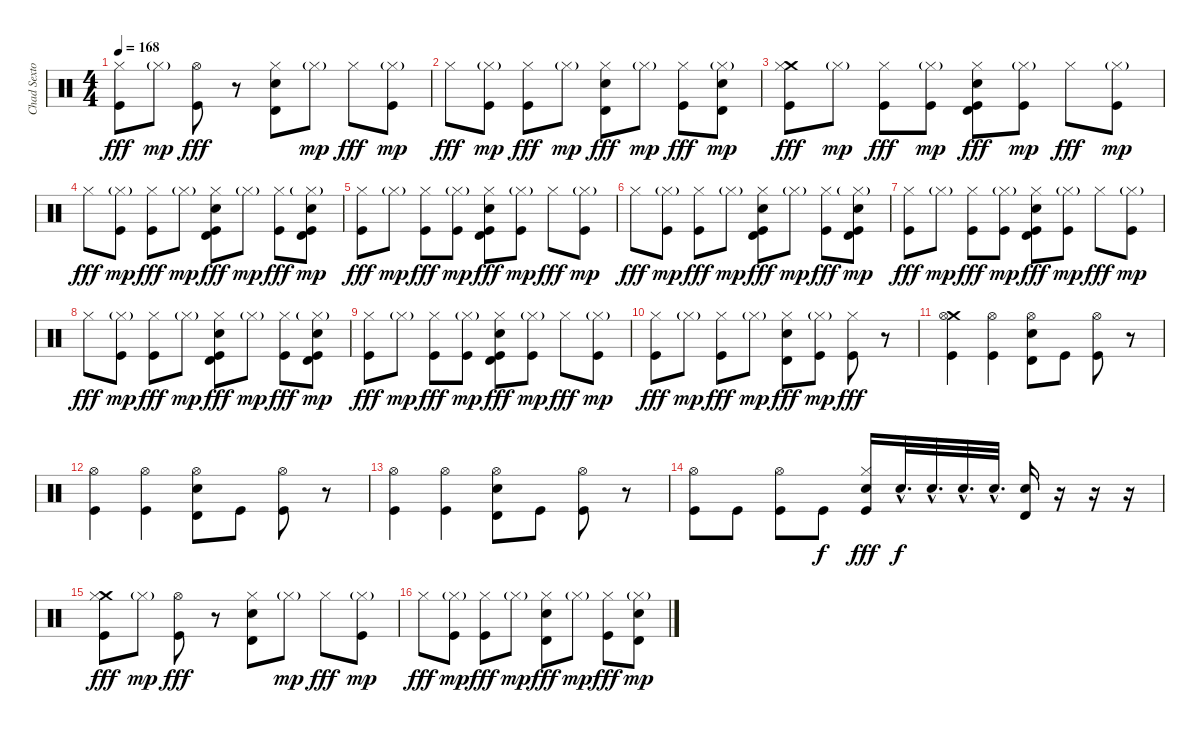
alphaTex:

\track ("Chad Sexton" "Chad Sexto") {instrument percussion}
\staff {score}
\articulation defaults
\ts (4 4)
\tempo 168
\clef neutral
\ks c
("Kick (hit)" "Hi-Hat (closed)").8{dy fff} "Hi-Hat (closed)"{g}.8{dy mp} ("Kick (hit)" "Hi-Hat (open)").8{dy fff} r.8 ("Electric Snare (hit)" "Timbale high (hit)" "Hi-Hat (closed)").8 "Hi-Hat (closed)"{g}.8{dy mp} "Hi-Hat (closed)".8{dy fff} ("Kick (hit)" "Hi-Hat (closed)"{g}).8{dy mp} |
"Hi-Hat (closed)".8{dy fff} ("Kick (hit)" "Hi-Hat (closed)"{g}).8{dy mp} ("Kick (hit)" "Hi-Hat (closed)").8{dy fff} "Hi-Hat (closed)"{g}.8{dy mp} ("Electric Snare (hit)" "Timbale high (hit)" "Hi-Hat (closed)").8{dy fff} "Hi-Hat (closed)"{g}.8{dy mp} ("Kick (hit)" "Hi-Hat (closed)").8{dy fff} ("Electric Snare (hit)" "Timbale high (hit)" "Hi-Hat (closed)"{g}).8{dy mp} |
("Crash medium (hit)" "Kick (hit)" "Hi-Hat (closed)").8{dy fff} "Hi-Hat (closed)"{g}.8{dy mp} ("Kick (hit)" "Hi-Hat (closed)").8{dy fff} ("Kick (hit)" "Hi-Hat (closed)"{g}).8{dy mp} ("Timbale high (hit)" "Electric Snare (hit)" "Kick (hit)" "Hi-Hat (closed)").8{dy fff} ("Kick (hit)" "Hi-Hat (closed)"{g}).8{dy mp} "Hi-Hat (closed)".8{dy fff} ("Kick (hit)" "Hi-Hat (closed)"{g}).8{dy mp} |
"Hi-Hat (closed)".8{dy fff} ("Kick (hit)" "Hi-Hat (closed)"{g}).8{dy mp} ("Kick (hit)" "Hi-Hat (closed)").8{dy fff} "Hi-Hat (closed)"{g}.8{dy mp} ("Timbale high (hit)" "Electric Snare (hit)" "Kick (hit)" "Hi-Hat (closed)").8{dy fff} "Hi-Hat (closed)"{g}.8{dy mp} ("Kick (hit)" "Hi-Hat (closed)").8{dy fff} ("Timbale high (hit)" "Electric Snare (hit)" "Kick (hit)" "Hi-Hat (closed)"{g}).8{dy mp} |
("Kick (hit)" "Hi-Hat (closed)").8{dy fff} "Hi-Hat (closed)"{g}.8{dy mp} ("Kick (hit)" "Hi-Hat (closed)").8{dy fff} ("Kick (hit)" "Hi-Hat (closed)"{g}).8{dy mp} ("Timbale high (hit)" "Electric Snare (hit)" "Kick (hit)" "Hi-Hat (closed)").8{dy fff} ("Kick (hit)" "Hi-Hat (closed)"{g}).8{dy mp} "Hi-Hat (closed)".8{dy fff} ("Kick (hit)" "Hi-Hat (closed)"{g}).8{dy mp} |
"Hi-Hat (closed)".8{dy fff} ("Kick (hit)" "Hi-Hat (closed)"{g}).8{dy mp} ("Kick (hit)" "Hi-Hat (closed)").8{dy fff} "Hi-Hat (closed)"{g}.8{dy mp} ("Timbale high (hit)" "Electric Snare (hit)" "Kick (hit)" "Hi-Hat (closed)").8{dy fff} "Hi-Hat (closed)"{g}.8{dy mp} ("Kick (hit)" "Hi-Hat (closed)").8{dy fff} ("Timbale high (hit)" "Electric Snare (hit)" "Kick (hit)" "Hi-Hat (closed)"{g}).8{dy mp} |
("Kick (hit)" "Hi-Hat (closed)").8{dy fff} "Hi-Hat (closed)"{g}.8{dy mp} ("Kick (hit)" "Hi-Hat (closed)").8{dy fff} ("Kick (hit)" "Hi-Hat (closed)"{g}).8{dy mp} ("Timbale high (hit)" "Electric Snare (hit)" "Kick (hit)" "Hi-Hat (closed)").8{dy fff} ("Kick (hit)" "Hi-Hat (closed)"{g}).8{dy mp} "Hi-Hat (closed)".8{dy fff} ("Kick (hit)" "Hi-Hat (closed)"{g}).8{dy mp} |
"Hi-Hat (closed)".8{dy fff} ("Kick (hit)" "Hi-Hat (closed)"{g}).8{dy mp} ("Kick (hit)" "Hi-Hat (closed)").8{dy fff} "Hi-Hat (closed)"{g}.8{dy mp} ("Timbale high (hit)" "Electric Snare (hit)" "Kick (hit)" "Hi-Hat (closed)").8{dy fff} "Hi-Hat (closed)"{g}.8{dy mp} ("Kick (hit)" "Hi-Hat (closed)").8{dy fff} ("Timbale high (hit)" "Electric Snare (hit)" "Kick (hit)" "Hi-Hat (closed)"{g}).8{dy mp} |
("Kick (hit)" "Hi-Hat (closed)").8{dy fff} "Hi-Hat (closed)"{g}.8{dy mp} ("Kick (hit)" "Hi-Hat (closed)").8{dy fff} ("Kick (hit)" "Hi-Hat (closed)"{g}).8{dy mp} ("Timbale high (hit)" "Electric Snare (hit)" "Kick (hit)" "Hi-Hat (closed)").8{dy fff} ("Kick (hit)" "Hi-Hat (closed)"{g}).8{dy mp} "Hi-Hat (closed)".8{dy fff} ("Kick (hit)" "Hi-Hat (closed)"{g}).8{dy mp} |
("Kick (hit)" "Hi-Hat (closed)").8{dy fff} "Hi-Hat (closed)"{g}.8{dy mp} ("Kick (hit)" "Hi-Hat (closed)").8{dy fff} "Hi-Hat (closed)"{g}.8{dy mp} ("Timbale high (hit)" "Electric Snare (hit)" "Hi-Hat (closed)").8{dy fff} ("Kick (hit)" "Hi-Hat (closed)"{g}).8{dy mp} ("Kick (hit)" "Hi-Hat (closed)").8{dy fff} r.8 |
("Crash medium (hit)" "Hi-Hat (open)" "Kick (hit)").4 ("Hi-Hat (open)" "Kick (hit)").4 ("Hi-Hat (open)" "Electric Snare (hit)" "Timbale high (hit)").8 "Kick (hit)".8 ("Hi-Hat (open)" "Kick (hit)").8 r.8 |
("Hi-Hat (open)" "Kick (hit)").4 ("Hi-Hat (open)" "Kick (hit)").4 ("Hi-Hat (open)" "Electric Snare (hit)" "Timbale high (hit)").8 "Kick (hit)".8 ("Hi-Hat (open)" "Kick (hit)").8 r.8 |
("Hi-Hat (open)" "Kick (hit)").4 ("Hi-Hat (open)" "Kick (hit)").4 ("Hi-Hat (open)" "Electric Snare (hit)" "Timbale high (hit)").8 "Kick (hit)".8 ("Hi-Hat (open)" "Kick (hit)").8 r.8 |
("Hi-Hat (open)" "Kick (hit)").8 "Kick (hit)".8 ("Hi-Hat (open)" "Kick (hit)").8 "Kick (hit)".8{dy f} ("Hi-Hat (closed)" "Electric Snare (hit)" "Kick (hit)").16{dy fff} "Electric Snare (hit)"{hac}.32{d dy f} "Electric Snare (hit)"{hac}.32{d} "Electric Snare (hit)"{hac}.32{d} "Electric Snare (hit)"{hac}.32{d} ("Electric Snare (hit)" "Timbale high (hit)").16 r.16 r.16 r.16 |
("Crash medium (hit)" "Kick (hit)" "Hi-Hat (closed)").8{dy fff} "Hi-Hat (closed)"{g}.8{dy mp} ("Kick (hit)" "Hi-Hat (open)").8{dy fff} r.8 ("Electric Snare (hit)" "Timbale high (hit)" "Hi-Hat (closed)").8 "Hi-Hat (closed)"{g}.8{dy mp} "Hi-Hat (closed)".8{dy fff} ("Kick (hit)" "Hi-Hat (closed)"{g}).8{dy mp} |
"Hi-Hat (closed)".8{dy fff} ("Kick (hit)" "Hi-Hat (closed)"{g}).8{dy mp} ("Kick (hit)" "Hi-Hat (closed)").8{dy fff} "Hi-Hat (closed)"{g}.8{dy mp} ("Electric Snare (hit)" "Timbale high (hit)" "Hi-Hat (closed)").8{dy fff} "Hi-Hat (closed)"{g}.8{dy mp} ("Kick (hit)" "Hi-Hat (closed)").8{dy fff} ("Electric Snare (hit)" "Timbale high (hit)" "Hi-Hat (closed)"{g}).8{dy mp}
